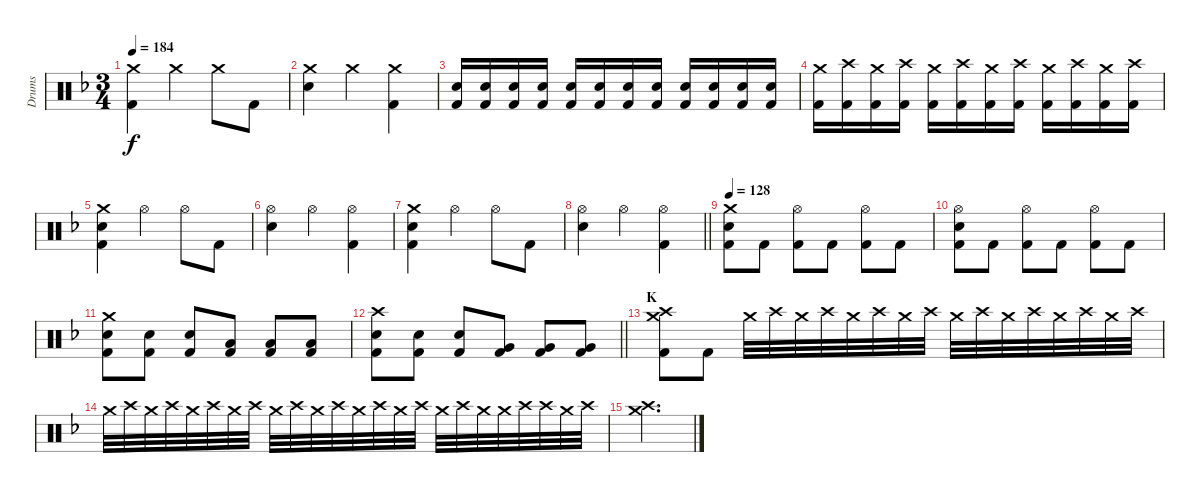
\track ("Drums" "Drums") {instrument percussion}
\staff {score}
\articulation defaults
\ts (3 4)
\tempo 184
\clef neutral
\ks f
("Crash medium (hit)" "Kick (hit) 2").4{dy f} "Crash medium (hit)".4 "Crash medium (hit)".8 "Kick (hit) 2".8 |
("Crash medium (hit)" "Electric Snare (hit)").4 "Crash medium (hit)".4 ("Crash medium (hit)" "Kick (hit) 2").4 |
("Electric Snare (hit)" "Kick (hit) 2").16 ("Electric Snare (hit)" "Kick (hit) 2").16 ("Electric Snare (hit)" "Kick (hit) 2").16 ("Electric Snare (hit)" "Kick (hit) 2").16 ("Electric Snare (hit)" "Kick (hit) 2").16 ("Electric Snare (hit)" "Kick (hit) 2").16 ("Electric Snare (hit)" "Kick (hit) 2").16 ("Electric Snare (hit)" "Kick (hit) 2").16 ("Electric Snare (hit)" "Kick (hit) 2").16 ("Electric Snare (hit)" "Kick (hit) 2").16 ("Electric Snare (hit)" "Kick (hit) 2").16 ("Electric Snare (hit)" "Kick (hit) 2").16 |
("Crash medium (hit)" "Kick (hit) 2").16 ("Crash high (hit)" "Kick (hit) 2").16 ("Crash medium (hit)" "Kick (hit) 2").16 ("Crash high (hit)" "Kick (hit) 2").16 ("Crash medium (hit)" "Kick (hit) 2").16 ("Crash high (hit)" "Kick (hit) 2").16 ("Crash medium (hit)" "Kick (hit) 2").16 ("Crash high (hit)" "Kick (hit) 2").16 ("Crash medium (hit)" "Kick (hit) 2").16 ("Crash high (hit)" "Kick (hit) 2").16 ("Crash medium (hit)" "Kick (hit) 2").16 ("Crash high (hit)" "Kick (hit) 2").16 |
("Crash medium (hit)" "Electric Snare (hit)" "Kick (hit) 2").4 "Hi-Hat (open)".4 "Hi-Hat (open)".8 "Kick (hit) 2".8 |
("Hi-Hat (open)" "Electric Snare (hit)").4 "Hi-Hat (open)".4 ("Hi-Hat (open)" "Kick (hit) 2").4 |
("Crash medium (hit)" "Electric Snare (hit)" "Kick (hit) 2").4 "Hi-Hat (open)".4 "Hi-Hat (open)".8 "Kick (hit) 2".8 |
\barLineRight lightlight
("Hi-Hat (open)" "Electric Snare (hit)").4 "Hi-Hat (open)".4 ("Hi-Hat (open)" "Kick (hit) 2").4 |
\tempo 128
("Crash medium (hit)" "Electric Snare (hit)" "Kick (hit) 2").8 "Kick (hit) 2".8 ("Hi-Hat (open)" "Kick (hit) 2").8 "Kick (hit) 2".8 ("Hi-Hat (open)" "Kick (hit) 2").8 "Kick (hit) 2".8 |
("Hi-Hat (open)" "Electric Snare (hit)" "Kick (hit) 2").8 "Kick (hit) 2".8 ("Hi-Hat (open)" "Kick (hit) 2").8 "Kick (hit) 2".8 ("Hi-Hat (open)" "Kick (hit) 2").8 "Kick (hit) 2".8 |
("Crash medium (hit)" "Electric Snare (hit)" "Kick (hit) 2").8 ("Electric Snare (hit)" "Kick (hit) 2").8 ("Electric Snare (hit)" "Kick (hit) 2").8 ("Low Tom (hit)" "Kick (hit) 2").8 ("Low Tom (hit)" "Kick (hit) 2").8 ("Low Tom (hit)" "Kick (hit) 2").8 |
\barLineRight lightlight
("Crash high (hit)" "Electric Snare (hit)" "Kick (hit) 2").8 ("Electric Snare (hit)" "Kick (hit) 2").8 ("Electric Snare (hit)" "Kick (hit) 2").8 ("Very Low Tom (hit)" "Kick (hit) 2").8 ("Very Low Tom (hit)" "Kick (hit) 2").8 ("Very Low Tom (hit)" "Kick (hit) 2").8 |
\section ("" "K")
("Crash medium (hit)" "Crash high (hit)" "Kick (hit) 2").8 "Kick (hit) 2".8 "Crash medium (hit)".32{volume 7} "Crash high (hit)".32 "Crash medium (hit)".32{volume 14} "Crash high (hit)".32 "Crash medium (hit)".32 "Crash high (hit)".32 "Crash medium (hit)".32 "Crash high (hit)".32 "Crash medium (hit)".32 "Crash high (hit)".32 "Crash medium (hit)".32 "Crash high (hit)".32 "Crash medium (hit)".32 "Crash high (hit)".32 "Crash medium (hit)".32 "Crash high (hit)".32 |
"Crash medium (hit)".32 "Crash high (hit)".32 "Crash medium (hit)".32 "Crash high (hit)".32 "Crash medium (hit)".32 "Crash high (hit)".32 "Crash medium (hit)".32 "Crash high (hit)".32 "Crash medium (hit)".32 "Crash high (hit)".32 "Crash medium (hit)".32 "Crash high (hit)".32 "Crash medium (hit)".32 "Crash high (hit)".32 "Crash medium (hit)".32 "Crash high (hit)".32 "Crash medium (hit)".32 "Crash high (hit)".32 "Crash medium (hit)".32 "Crash medium (hit)".32 "Crash high (hit)".32 "Crash high (hit)".32 "Crash medium (hit)".32 "Crash high (hit)".32 |
("Crash medium (hit)" "Crash high (hit)").2{d}
